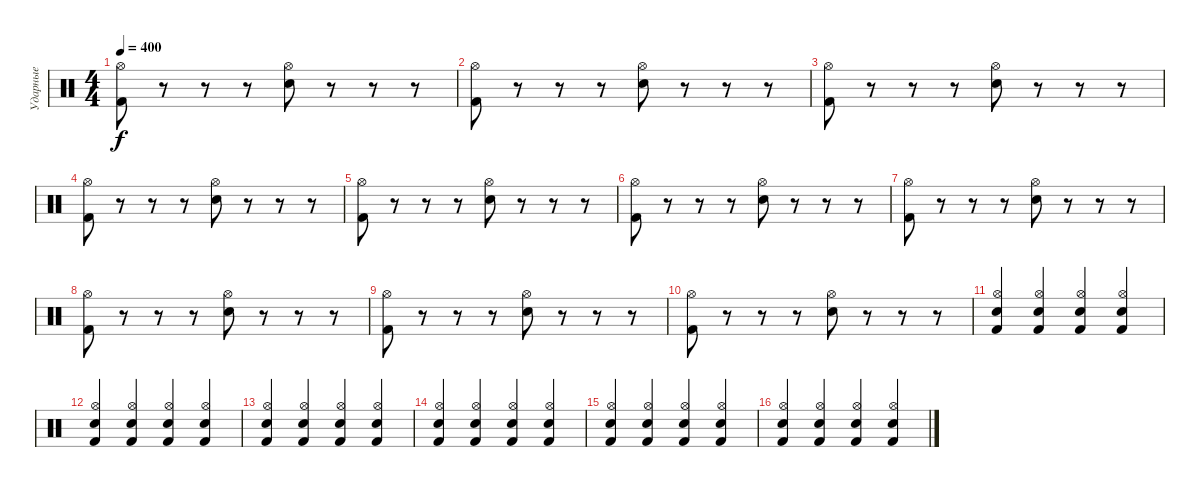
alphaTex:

\track ("Ударные" "Ударные") {instrument percussion}
\staff {score}
\articulation defaults
\ts (4 4)
\tempo 400
\clef neutral
\ks c
("Kick (hit) 2" "Hi-Hat (open)").8{dy f} r.8 r.8 r.8 ("Electric Snare (hit)" "Hi-Hat (open)").8 r.8 r.8 r.8 |
("Kick (hit) 2" "Hi-Hat (open)").8 r.8 r.8 r.8 ("Electric Snare (hit)" "Hi-Hat (open)").8 r.8 r.8 r.8 |
("Kick (hit) 2" "Hi-Hat (open)").8 r.8 r.8 r.8 ("Electric Snare (hit)" "Hi-Hat (open)").8 r.8 r.8 r.8 |
("Kick (hit) 2" "Hi-Hat (open)").8 r.8 r.8 r.8 ("Electric Snare (hit)" "Hi-Hat (open)").8 r.8 r.8 r.8 |
("Kick (hit) 2" "Hi-Hat (open)").8 r.8 r.8 r.8 ("Electric Snare (hit)" "Hi-Hat (open)").8 r.8 r.8 r.8 |
("Kick (hit) 2" "Hi-Hat (open)").8 r.8 r.8 r.8 ("Electric Snare (hit)" "Hi-Hat (open)").8 r.8 r.8 r.8 |
("Kick (hit) 2" "Hi-Hat (open)").8 r.8 r.8 r.8 ("Electric Snare (hit)" "Hi-Hat (open)").8 r.8 r.8 r.8 |
("Kick (hit) 2" "Hi-Hat (open)").8 r.8 r.8 r.8 ("Electric Snare (hit)" "Hi-Hat (open)").8 r.8 r.8 r.8 |
("Kick (hit) 2" "Hi-Hat (open)").8 r.8 r.8 r.8 ("Electric Snare (hit)" "Hi-Hat (open)").8 r.8 r.8 r.8 |
("Kick (hit) 2" "Hi-Hat (open)").8 r.8 r.8 r.8 ("Electric Snare (hit)" "Hi-Hat (open)").8 r.8 r.8 r.8 |
("Kick (hit) 2" "Hi-Hat (open)" "Electric Snare (hit)").4 ("Hi-Hat (open)" "Kick (hit) 2" "Electric Snare (hit)").4 ("Electric Snare (hit)" "Kick (hit) 2" "Hi-Hat (open)").4 ("Hi-Hat (open)" "Kick (hit) 2" "Electric Snare (hit)").4 |
("Kick (hit) 2" "Hi-Hat (open)" "Electric Snare (hit)").4 ("Hi-Hat (open)" "Kick (hit) 2" "Electric Snare (hit)").4 ("Electric Snare (hit)" "Kick (hit) 2" "Hi-Hat (open)").4 ("Hi-Hat (open)" "Kick (hit) 2" "Electric Snare (hit)").4 |
("Kick (hit) 2" "Hi-Hat (open)" "Electric Snare (hit)").4 ("Hi-Hat (open)" "Kick (hit) 2" "Electric Snare (hit)").4 ("Electric Snare (hit)" "Kick (hit) 2" "Hi-Hat (open)").4 ("Hi-Hat (open)" "Kick (hit) 2" "Electric Snare (hit)").4 |
("Kick (hit) 2" "Hi-Hat (open)" "Electric Snare (hit)").4 ("Hi-Hat (open)" "Kick (hit) 2" "Electric Snare (hit)").4 ("Electric Snare (hit)" "Kick (hit) 2" "Hi-Hat (open)").4 ("Hi-Hat (open)" "Kick (hit) 2" "Electric Snare (hit)").4 |
("Kick (hit) 2" "Hi-Hat (open)" "Electric Snare (hit)").4 ("Hi-Hat (open)" "Kick (hit) 2" "Electric Snare (hit)").4 ("Electric Snare (hit)" "Kick (hit) 2" "Hi-Hat (open)").4 ("Hi-Hat (open)" "Kick (hit) 2" "Electric Snare (hit)").4 |
("Kick (hit) 2" "Hi-Hat (open)" "Electric Snare (hit)").4 ("Hi-Hat (open)" "Kick (hit) 2" "Electric Snare (hit)").4 ("Electric Snare (hit)" "Kick (hit) 2" "Hi-Hat (open)").4 ("Hi-Hat (open)" "Kick (hit) 2" "Electric Snare (hit)").4
